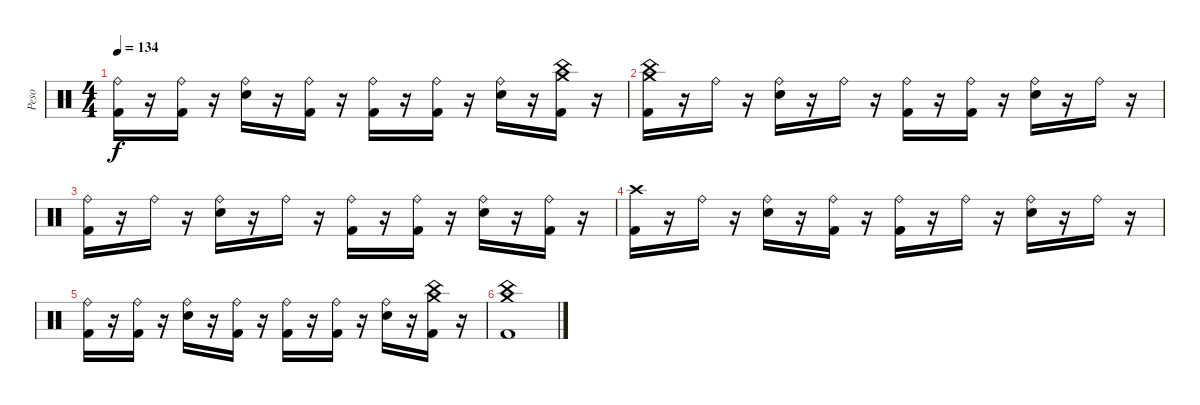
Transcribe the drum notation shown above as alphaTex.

\track ("Peso" "Peso") {instrument percussion}
\staff {score}
\articulation defaults
\ts (4 4)
\tempo 134
\clef neutral
\ks c
("Ride (bell)" "Kick (hit) 2").16{dy f} r.16 ("Ride (bell)" "Kick (hit) 2").16 r.16 ("Ride (bell)" "Snare (hit) 2").16 r.16 ("Ride (bell)" "Kick (hit) 2").16 r.16 ("Ride (bell)" "Kick (hit) 2").16 r.16 ("Ride (bell)" "Kick (hit) 2").16 r.16 ("Ride (bell)" "Snare (hit) 2").16 r.16 ("Crash medium (hit)" "China (hit)" "Kick (hit) 2").16 r.16 |
("Crash medium (hit)" "China (hit)" "Kick (hit) 2").16 r.16 "Ride (bell)".16 r.16 ("Ride (bell)" "Snare (hit) 2").16 r.16 "Ride (bell)".16 r.16 ("Ride (bell)" "Kick (hit) 2").16 r.16 ("Ride (bell)" "Kick (hit) 2").16 r.16 ("Ride (bell)" "Snare (hit) 2").16 r.16 "Ride (bell)".16 r.16 |
("Ride (bell)" "Kick (hit) 2").16 r.16 "Ride (bell)".16 r.16 ("Ride (bell)" "Snare (hit) 2").16 r.16 "Ride (bell)".16 r.16 ("Ride (bell)" "Kick (hit) 2").16 r.16 ("Ride (bell)" "Kick (hit) 2").16 r.16 ("Ride (bell)" "Snare (hit) 2").16 r.16 ("Ride (bell)" "Kick (hit) 2").16 r.16 |
("Crash high (hit)" "Kick (hit) 2").16 r.16 "Ride (bell)".16 r.16 ("Ride (bell)" "Snare (hit) 2").16 r.16 ("Ride (bell)" "Kick (hit) 2").16 r.16 ("Ride (bell)" "Kick (hit) 2").16 r.16 "Ride (bell)".16 r.16 ("Ride (bell)" "Snare (hit) 2").16 r.16 "Ride (bell)".16 r.16 |
("Ride (bell)" "Kick (hit) 2").16 r.16 ("Ride (bell)" "Kick (hit) 2").16 r.16 ("Ride (bell)" "Snare (hit) 2").16 r.16 ("Ride (bell)" "Kick (hit) 2").16 r.16 ("Ride (bell)" "Kick (hit) 2").16 r.16 ("Ride (bell)" "Kick (hit) 2").16 r.16 ("Ride (bell)" "Snare (hit) 2").16 r.16 ("Crash medium (hit)" "China (hit)" "Kick (hit) 2").16 r.16 |
("China (hit)" "Crash medium (hit)" "Kick (hit) 2").1
